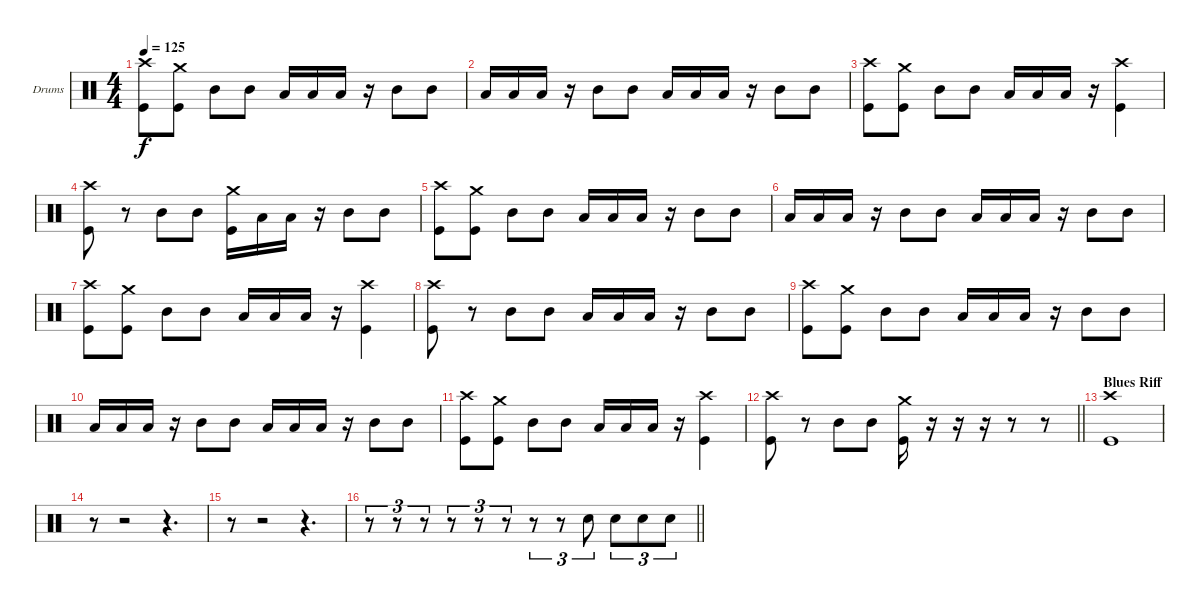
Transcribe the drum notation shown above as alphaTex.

\bracketExtendMode groupsimilarinstruments
\firstSystemTrackNameOrientation horizontal
\otherSystemsTrackNameOrientation horizontal
\track ("Drumkit" "Drums") {instrument percussion}
\staff {score}
\articulation defaults
\ts (4 4)
\tempo 125
\clef neutral
\ks c
("Crash high (hit)" "Kick (hit)").8{dy f} ("Crash medium (hit)" "Kick (hit)").8 "Mid Tom (hit)".8 "Mid Tom (hit)".8 "Low Tom (hit)".16 "Low Tom (hit)".16 "Low Tom (hit)".16 r.16 "Mid Tom (hit)".8 "Mid Tom (hit)".8 |
"Low Tom (hit)".16 "Low Tom (hit)".16 "Low Tom (hit)".16 r.16 "Mid Tom (hit)".8 "Mid Tom (hit)".8 "Low Tom (hit)".16 "Low Tom (hit)".16 "Low Tom (hit)".16 r.16 "Mid Tom (hit)".8 "Mid Tom (hit)".8 |
("Crash high (hit)" "Kick (hit)").8 ("Crash medium (hit)" "Kick (hit)").8 "Mid Tom (hit)".8 "Mid Tom (hit)".8 "Low Tom (hit)".16 "Low Tom (hit)".16 "Low Tom (hit)".16 r.16 ("Crash high (hit)" "Kick (hit)").4 |
("Crash high (hit)" "Kick (hit)").8 r.8 "Mid Tom (hit)".8 "Mid Tom (hit)".8 ("Crash medium (hit)" "Kick (hit)").16 "Low Tom (hit)".16 "Low Tom (hit)".16 r.16 "Mid Tom (hit)".8 "Mid Tom (hit)".8 |
("Crash high (hit)" "Kick (hit)").8 ("Crash medium (hit)" "Kick (hit)").8 "Mid Tom (hit)".8 "Mid Tom (hit)".8 "Low Tom (hit)".16 "Low Tom (hit)".16 "Low Tom (hit)".16 r.16 "Mid Tom (hit)".8 "Mid Tom (hit)".8 |
"Low Tom (hit)".16 "Low Tom (hit)".16 "Low Tom (hit)".16 r.16 "Mid Tom (hit)".8 "Mid Tom (hit)".8 "Low Tom (hit)".16 "Low Tom (hit)".16 "Low Tom (hit)".16 r.16 "Mid Tom (hit)".8 "Mid Tom (hit)".8 |
("Crash high (hit)" "Kick (hit)").8 ("Crash medium (hit)" "Kick (hit)").8 "Mid Tom (hit)".8 "Mid Tom (hit)".8 "Low Tom (hit)".16 "Low Tom (hit)".16 "Low Tom (hit)".16 r.16 ("Crash high (hit)" "Kick (hit)").4 |
("Crash high (hit)" "Kick (hit)").8 r.8 "Mid Tom (hit)".8 "Mid Tom (hit)".8 "Low Tom (hit)".16 "Low Tom (hit)".16 "Low Tom (hit)".16 r.16 "Mid Tom (hit)".8 "Mid Tom (hit)".8 |
("Crash high (hit)" "Kick (hit)").8 ("Crash medium (hit)" "Kick (hit)").8 "Mid Tom (hit)".8 "Mid Tom (hit)".8 "Low Tom (hit)".16 "Low Tom (hit)".16 "Low Tom (hit)".16 r.16 "Mid Tom (hit)".8 "Mid Tom (hit)".8 |
"Low Tom (hit)".16 "Low Tom (hit)".16 "Low Tom (hit)".16 r.16 "Mid Tom (hit)".8 "Mid Tom (hit)".8 "Low Tom (hit)".16 "Low Tom (hit)".16 "Low Tom (hit)".16 r.16 "Mid Tom (hit)".8 "Mid Tom (hit)".8 |
("Crash high (hit)" "Kick (hit)").8 ("Crash medium (hit)" "Kick (hit)").8 "Mid Tom (hit)".8 "Mid Tom (hit)".8 "Low Tom (hit)".16 "Low Tom (hit)".16 "Low Tom (hit)".16 r.16 ("Crash high (hit)" "Kick (hit)").4 |
\barLineRight lightlight
("Crash high (hit)" "Kick (hit)").8 r.8 "Mid Tom (hit)".8 "Mid Tom (hit)".8 ("Crash medium (hit)" "Kick (hit)").16 r.16 r.16 r.16 r.8 r.8 |
\section ("" "Blues Riff")
("Crash high (hit)" "Kick (hit)").1 |
r.8 r.2 r.4{d} |
r.8 r.2 r.4{d} |
\barLineRight lightlight
r.8{tu (3 2)} r.8{tu (3 2)} r.8{tu (3 2)} r.8{tu (3 2)} r.8{tu (3 2)} r.8{tu (3 2)} r.8{tu (3 2)} r.8{tu (3 2)} "Snare (hit) 2".8{tu (3 2)} "Snare (hit) 2".8{tu (3 2)} "Snare (hit) 2".8{tu (3 2)} "Snare (hit) 2".8{tu (3 2)}
